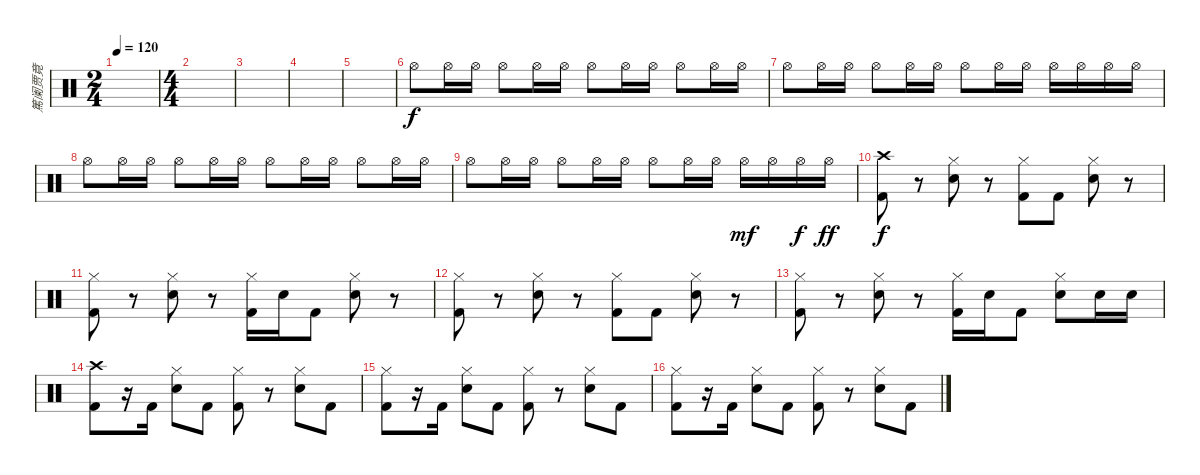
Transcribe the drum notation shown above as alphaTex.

\track ("篤阑贾竟" "篤阑贾竟") {instrument percussion}
\staff {score}
\articulation defaults
\ts (2 4)
\tempo 120
\clef neutral
\ks c
|
\ts (4 4)
|
|
|
|
"Hi-Hat (open)".8 "Hi-Hat (open)".16 "Hi-Hat (open)".16 "Hi-Hat (open)".8 "Hi-Hat (open)".16 "Hi-Hat (open)".16 "Hi-Hat (open)".8 "Hi-Hat (open)".16 "Hi-Hat (open)".16 "Hi-Hat (open)".8 "Hi-Hat (open)".16 "Hi-Hat (open)".16 |
"Hi-Hat (open)".8 "Hi-Hat (open)".16 "Hi-Hat (open)".16 "Hi-Hat (open)".8 "Hi-Hat (open)".16 "Hi-Hat (open)".16 "Hi-Hat (open)".8 "Hi-Hat (open)".16 "Hi-Hat (open)".16 "Hi-Hat (open)".16 "Hi-Hat (open)".16 "Hi-Hat (open)".16 "Hi-Hat (open)".16 |
"Hi-Hat (open)".8 "Hi-Hat (open)".16 "Hi-Hat (open)".16 "Hi-Hat (open)".8 "Hi-Hat (open)".16 "Hi-Hat (open)".16 "Hi-Hat (open)".8 "Hi-Hat (open)".16 "Hi-Hat (open)".16 "Hi-Hat (open)".8 "Hi-Hat (open)".16 "Hi-Hat (open)".16 |
"Hi-Hat (open)".8 "Hi-Hat (open)".16 "Hi-Hat (open)".16 "Hi-Hat (open)".8 "Hi-Hat (open)".16 "Hi-Hat (open)".16 "Hi-Hat (open)".8 "Hi-Hat (open)".16 "Hi-Hat (open)".16 "Hi-Hat (open)".16{dy mf} "Hi-Hat (open)".16 "Hi-Hat (open)".16{dy f} "Hi-Hat (open)".16{dy ff} |
("Crash high (hit)" "Kick (hit) 2").8{dy f} r.8 ("Hi-Hat (closed)" "Electric Snare (hit)").8 r.8 ("Hi-Hat (closed)" "Kick (hit) 2").8 "Kick (hit) 2".8 ("Hi-Hat (closed)" "Electric Snare (hit)").8 r.8 |
("Hi-Hat (closed)" "Kick (hit) 2").8 r.8 ("Hi-Hat (closed)" "Electric Snare (hit)").8 r.8 ("Hi-Hat (closed)" "Kick (hit) 2").16 "Electric Snare (hit)".16 "Kick (hit) 2".8 ("Hi-Hat (closed)" "Electric Snare (hit)").8 r.8 |
("Hi-Hat (closed)" "Kick (hit) 2").8 r.8 ("Hi-Hat (closed)" "Electric Snare (hit)").8 r.8 ("Hi-Hat (closed)" "Kick (hit) 2").8 "Kick (hit) 2".8 ("Hi-Hat (closed)" "Electric Snare (hit)").8 r.8 |
("Hi-Hat (closed)" "Kick (hit) 2").8 r.8 ("Hi-Hat (closed)" "Electric Snare (hit)").8 r.8 ("Hi-Hat (closed)" "Kick (hit) 2").16 "Electric Snare (hit)".16 "Kick (hit) 2".8 ("Hi-Hat (closed)" "Electric Snare (hit)").8 "Electric Snare (hit)".16 "Electric Snare (hit)".16 |
("Crash high (hit)" "Kick (hit) 2").8 r.16 "Kick (hit) 2".16 ("Hi-Hat (closed)" "Electric Snare (hit)").8 "Kick (hit) 2".8 ("Hi-Hat (closed)" "Kick (hit) 2").8 r.8 ("Hi-Hat (closed)" "Electric Snare (hit)").8 "Kick (hit) 2".8 |
("Hi-Hat (closed)" "Kick (hit) 2").8 r.16 "Kick (hit) 2".16 ("Hi-Hat (closed)" "Electric Snare (hit)").8 "Kick (hit) 2".8 ("Hi-Hat (closed)" "Kick (hit) 2").8 r.8 ("Hi-Hat (closed)" "Electric Snare (hit)").8 "Kick (hit) 2".8 |
("Hi-Hat (closed)" "Kick (hit) 2").8 r.16 "Kick (hit) 2".16 ("Hi-Hat (closed)" "Electric Snare (hit)").8 "Kick (hit) 2".8 ("Hi-Hat (closed)" "Kick (hit) 2").8 r.8 ("Hi-Hat (closed)" "Electric Snare (hit)").8 "Kick (hit) 2".8
